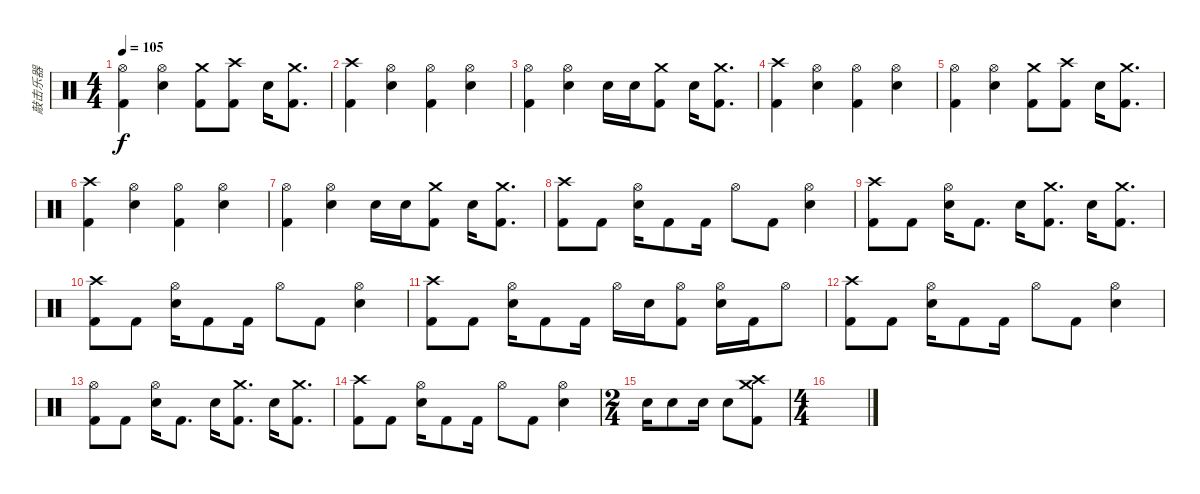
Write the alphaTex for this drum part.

\track ("敲击乐器" "敲击乐器") {instrument percussion}
\staff {score}
\articulation defaults
\ts (4 4)
\tempo 105
\clef neutral
\ks c
("Hi-Hat (open)" "Kick (hit) 2").4{dy f} ("Hi-Hat (open)" "Electric Snare (hit)").4 ("Crash medium (hit)" "Kick (hit) 2").8 ("Crash high (hit)" "Kick (hit) 2").8 "Electric Snare (hit)".16 ("Crash medium (hit)" "Kick (hit) 2").8{d} |
("Crash high (hit)" "Kick (hit) 2").4 ("Hi-Hat (open)" "Electric Snare (hit)").4 ("Hi-Hat (open)" "Kick (hit) 2").4 ("Hi-Hat (open)" "Electric Snare (hit)").4 |
("Hi-Hat (open)" "Kick (hit) 2").4 ("Hi-Hat (open)" "Electric Snare (hit)").4 "Electric Snare (hit)".16 "Electric Snare (hit)".16 ("Crash medium (hit)" "Kick (hit) 2").8 "Electric Snare (hit)".16 ("Crash medium (hit)" "Kick (hit) 2").8{d} |
("Crash high (hit)" "Kick (hit) 2").4 ("Hi-Hat (open)" "Electric Snare (hit)").4 ("Hi-Hat (open)" "Kick (hit) 2").4 ("Hi-Hat (open)" "Electric Snare (hit)").4 |
("Hi-Hat (open)" "Kick (hit) 2").4 ("Hi-Hat (open)" "Electric Snare (hit)").4 ("Crash medium (hit)" "Kick (hit) 2").8 ("Crash high (hit)" "Kick (hit) 2").8 "Electric Snare (hit)".16 ("Crash medium (hit)" "Kick (hit) 2").8{d} |
("Crash high (hit)" "Kick (hit) 2").4 ("Hi-Hat (open)" "Electric Snare (hit)").4 ("Hi-Hat (open)" "Kick (hit) 2").4 ("Hi-Hat (open)" "Electric Snare (hit)").4 |
("Hi-Hat (open)" "Kick (hit) 2").4 ("Hi-Hat (open)" "Electric Snare (hit)").4 "Electric Snare (hit)".16 "Electric Snare (hit)".16 ("Crash medium (hit)" "Kick (hit) 2").8 "Electric Snare (hit)".16 ("Crash medium (hit)" "Kick (hit) 2").8{d} |
("Crash high (hit)" "Kick (hit) 2").8 "Kick (hit) 2".8 ("Hi-Hat (open)" "Electric Snare (hit)").16 "Kick (hit) 2".8 "Kick (hit) 2".16 "Hi-Hat (open)".8 "Kick (hit) 2".8 ("Hi-Hat (open)" "Electric Snare (hit)").4 |
("Crash high (hit)" "Kick (hit) 2").8 "Kick (hit) 2".8 ("Hi-Hat (open)" "Electric Snare (hit)").16 "Kick (hit) 2".8{d} "Electric Snare (hit)".16 ("Crash medium (hit)" "Kick (hit) 2").8{d} "Electric Snare (hit)".16 ("Crash medium (hit)" "Kick (hit) 2").8{d} |
("Crash high (hit)" "Kick (hit) 2").8 "Kick (hit) 2".8 ("Hi-Hat (open)" "Electric Snare (hit)").16 "Kick (hit) 2".8 "Kick (hit) 2".16 "Hi-Hat (open)".8 "Kick (hit) 2".8 ("Hi-Hat (open)" "Electric Snare (hit)").4 |
("Crash high (hit)" "Kick (hit) 2").8 "Kick (hit) 2".8 ("Hi-Hat (open)" "Electric Snare (hit)").16 "Kick (hit) 2".8 "Kick (hit) 2".16 "Hi-Hat (open)".16 "Electric Snare (hit)".16 ("Hi-Hat (open)" "Kick (hit) 2").8 ("Hi-Hat (open)" "Electric Snare (hit)").16 "Kick (hit) 2".16 "Hi-Hat (open)".8 |
("Crash high (hit)" "Kick (hit) 2").8 "Kick (hit) 2".8 ("Hi-Hat (open)" "Electric Snare (hit)").16 "Kick (hit) 2".8 "Kick (hit) 2".16 "Hi-Hat (open)".8 "Kick (hit) 2".8 ("Hi-Hat (open)" "Electric Snare (hit)").4 |
("Hi-Hat (open)" "Kick (hit) 2").8 "Kick (hit) 2".8 ("Hi-Hat (open)" "Electric Snare (hit)").16 "Kick (hit) 2".8{d} "Electric Snare (hit)".16 ("Crash medium (hit)" "Kick (hit) 2").8{d} "Electric Snare (hit)".16 ("Crash medium (hit)" "Kick (hit) 2").8{d} |
("Crash high (hit)" "Kick (hit) 2").8 "Kick (hit) 2".8 ("Hi-Hat (open)" "Electric Snare (hit)").16 "Kick (hit) 2".8 "Kick (hit) 2".16 "Hi-Hat (open)".8 "Kick (hit) 2".8 ("Hi-Hat (open)" "Electric Snare (hit)").4 |
\ts (2 4)
"Electric Snare (hit)".16 "Electric Snare (hit)".8 "Electric Snare (hit)".16 "Electric Snare (hit)".8 ("Crash medium (hit)" "Crash high (hit)" "Kick (hit) 2").8 |
\ts (4 4)
